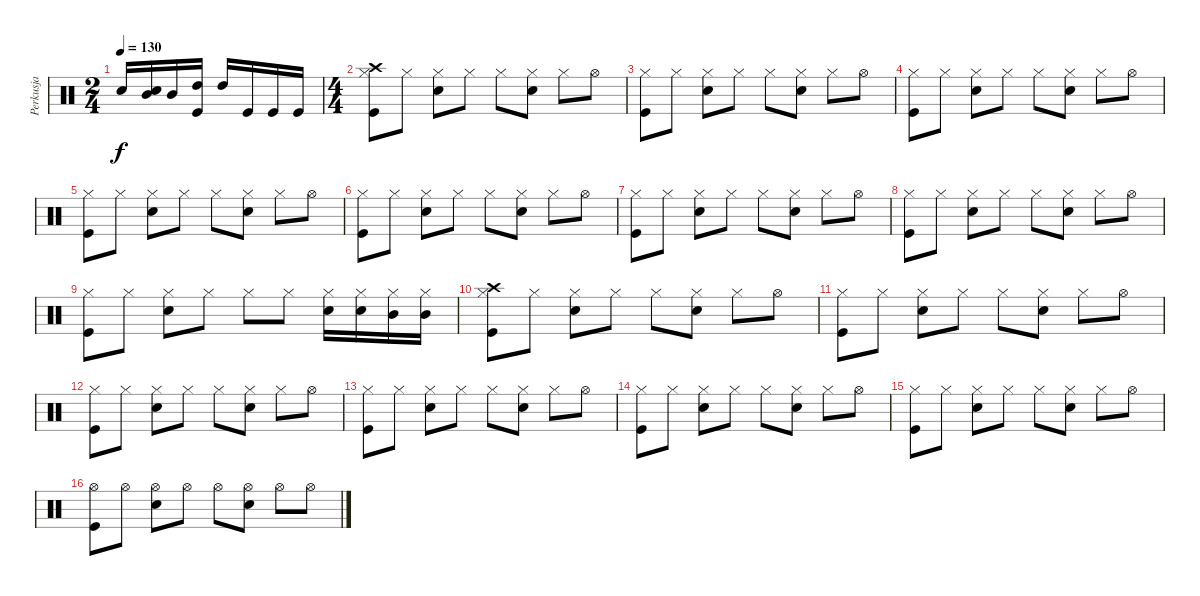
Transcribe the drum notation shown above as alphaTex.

\track ("Perkusja" "Perkusja") {instrument percussion}
\staff {score}
\articulation defaults
\ts (2 4)
\tempo 130
\clef neutral
\ks c "Electric Snare (hit)".16{dy f}
("Mid Tom (hit)" "Electric Snare (hit)").16 "Mid Tom (hit)".16 ("High Tom (hit)" "Kick (hit)").16 "High Tom (hit)".16 "Kick (hit)".16 "Kick (hit)".16 "Kick (hit)".16 |
\ts (4 4)
("Hi-Hat (closed)" "Crash high (hit)" "Kick (hit)").8 "Hi-Hat (closed)".8 ("Hi-Hat (closed)" "Electric Snare (hit)").8 "Hi-Hat (closed)".8 "Hi-Hat (closed)".8 ("Hi-Hat (closed)" "Electric Snare (hit)").8 "Hi-Hat (closed)".8 "Hi-Hat (open)".8 |
("Hi-Hat (closed)" "Kick (hit)").8 "Hi-Hat (closed)".8 ("Hi-Hat (closed)" "Electric Snare (hit)").8 "Hi-Hat (closed)".8 "Hi-Hat (closed)".8 ("Hi-Hat (closed)" "Electric Snare (hit)").8 "Hi-Hat (closed)".8 "Hi-Hat (open)".8 |
("Hi-Hat (closed)" "Kick (hit)").8 "Hi-Hat (closed)".8 ("Hi-Hat (closed)" "Electric Snare (hit)").8 "Hi-Hat (closed)".8 "Hi-Hat (closed)".8 ("Hi-Hat (closed)" "Electric Snare (hit)").8 "Hi-Hat (closed)".8 "Hi-Hat (open)".8 |
("Hi-Hat (closed)" "Kick (hit)").8 "Hi-Hat (closed)".8 ("Hi-Hat (closed)" "Electric Snare (hit)").8 "Hi-Hat (closed)".8 "Hi-Hat (closed)".8 ("Hi-Hat (closed)" "Electric Snare (hit)").8 "Hi-Hat (closed)".8 "Hi-Hat (open)".8 |
("Hi-Hat (closed)" "Kick (hit)").8 "Hi-Hat (closed)".8 ("Hi-Hat (closed)" "Electric Snare (hit)").8 "Hi-Hat (closed)".8 "Hi-Hat (closed)".8 ("Hi-Hat (closed)" "Electric Snare (hit)").8 "Hi-Hat (closed)".8 "Hi-Hat (open)".8 |
("Hi-Hat (closed)" "Kick (hit)").8 "Hi-Hat (closed)".8 ("Hi-Hat (closed)" "Electric Snare (hit)").8 "Hi-Hat (closed)".8 "Hi-Hat (closed)".8 ("Hi-Hat (closed)" "Electric Snare (hit)").8 "Hi-Hat (closed)".8 "Hi-Hat (open)".8 |
("Hi-Hat (closed)" "Kick (hit)").8 "Hi-Hat (closed)".8 ("Hi-Hat (closed)" "Electric Snare (hit)").8 "Hi-Hat (closed)".8 "Hi-Hat (closed)".8 ("Hi-Hat (closed)" "Electric Snare (hit)").8 "Hi-Hat (closed)".8 "Hi-Hat (open)".8 |
("Hi-Hat (closed)" "Kick (hit)").8 "Hi-Hat (closed)".8 ("Hi-Hat (closed)" "Electric Snare (hit)").8 "Hi-Hat (closed)".8 "Hi-Hat (closed)".8 "Hi-Hat (closed)".8 ("Hi-Hat (closed)" "Electric Snare (hit)").16 ("Hi-Hat (closed)" "Electric Snare (hit)").16 ("Hi-Hat (closed)" "Mid Tom (hit)").16 ("Hi-Hat (closed)" "Mid Tom (hit)").16 |
("Hi-Hat (closed)" "Crash high (hit)" "Kick (hit)").8 "Hi-Hat (closed)".8 ("Hi-Hat (closed)" "Electric Snare (hit)").8 "Hi-Hat (closed)".8 "Hi-Hat (closed)".8 ("Hi-Hat (closed)" "Electric Snare (hit)").8 "Hi-Hat (closed)".8 "Hi-Hat (open)".8 |
("Hi-Hat (closed)" "Kick (hit)").8 "Hi-Hat (closed)".8 ("Hi-Hat (closed)" "Electric Snare (hit)").8 "Hi-Hat (closed)".8 "Hi-Hat (closed)".8 ("Hi-Hat (closed)" "Electric Snare (hit)").8 "Hi-Hat (closed)".8 "Hi-Hat (open)".8 |
("Hi-Hat (closed)" "Kick (hit)").8 "Hi-Hat (closed)".8 ("Hi-Hat (closed)" "Electric Snare (hit)").8 "Hi-Hat (closed)".8 "Hi-Hat (closed)".8 ("Hi-Hat (closed)" "Electric Snare (hit)").8 "Hi-Hat (closed)".8 "Hi-Hat (open)".8 |
("Hi-Hat (closed)" "Kick (hit)").8 "Hi-Hat (closed)".8 ("Hi-Hat (closed)" "Electric Snare (hit)").8 "Hi-Hat (closed)".8 "Hi-Hat (closed)".8 ("Hi-Hat (closed)" "Electric Snare (hit)").8 "Hi-Hat (closed)".8 "Hi-Hat (open)".8 |
("Hi-Hat (closed)" "Kick (hit)").8 "Hi-Hat (closed)".8 ("Hi-Hat (closed)" "Electric Snare (hit)").8 "Hi-Hat (closed)".8 "Hi-Hat (closed)".8 ("Hi-Hat (closed)" "Electric Snare (hit)").8 "Hi-Hat (closed)".8 "Hi-Hat (open)".8 |
("Hi-Hat (closed)" "Kick (hit)").8 "Hi-Hat (closed)".8 ("Hi-Hat (closed)" "Electric Snare (hit)").8 "Hi-Hat (closed)".8 "Hi-Hat (closed)".8 ("Hi-Hat (closed)" "Electric Snare (hit)").8 "Hi-Hat (closed)".8 "Hi-Hat (open)".8 |
("Hi-Hat (open)" "Kick (hit)").8 "Hi-Hat (open)".8 ("Hi-Hat (open)" "Electric Snare (hit)").8 "Hi-Hat (open)".8 "Hi-Hat (open)".8 ("Hi-Hat (open)" "Electric Snare (hit)").8 "Hi-Hat (open)".8 "Hi-Hat (open)".8
